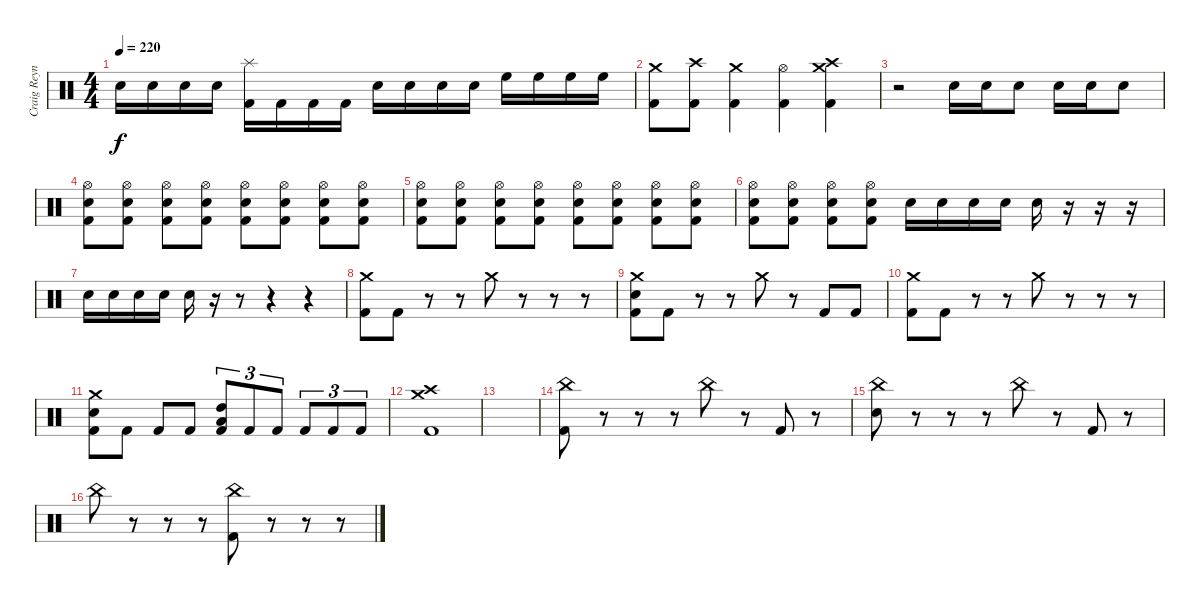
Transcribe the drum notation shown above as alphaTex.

\track ("Craig Reynolds" "Craig Reyn") {instrument percussion}
\staff {score}
\articulation defaults
\ts (4 4)
\tempo 220
\clef neutral
\ks c "Electric Snare (hit)".16{dy f} "Electric Snare (hit)".16 "Electric Snare (hit)".16 "Electric Snare (hit)".16
("Splash (hit)" "Kick (hit) 2").16 "Kick (hit) 2".16 "Kick (hit) 2".16 "Kick (hit) 2".16 "Electric Snare (hit)".16 "Electric Snare (hit)".16 "Electric Snare (hit)".16 "Electric Snare (hit)".16 "High Floor Tom (hit)".16 "High Floor Tom (hit)".16 "High Floor Tom (hit)".16 "High Floor Tom (hit)".16 |
("Crash medium (hit)" "Kick (hit) 2").8 ("Crash high (hit)" "Kick (hit) 2").8 ("Crash medium (hit)" "Kick (hit) 2").4 ("Hi-Hat (open)" "Kick (hit) 2").4 ("Crash high (hit)" "Crash medium (hit)" "Kick (hit) 2").4 |
r.2 "Electric Snare (hit)".16 "Electric Snare (hit)".16 "Electric Snare (hit)".8 "Electric Snare (hit)".16 "Electric Snare (hit)".16 "Electric Snare (hit)".8 |
("Hi-Hat (open)" "Electric Snare (hit)" "Kick (hit) 2").8 ("Hi-Hat (open)" "Electric Snare (hit)" "Kick (hit) 2").8 ("Hi-Hat (open)" "Electric Snare (hit)" "Kick (hit) 2").8 ("Hi-Hat (open)" "Electric Snare (hit)" "Kick (hit) 2").8 ("Hi-Hat (open)" "Electric Snare (hit)" "Kick (hit) 2").8 ("Hi-Hat (open)" "Electric Snare (hit)" "Kick (hit) 2").8 ("Hi-Hat (open)" "Electric Snare (hit)" "Kick (hit) 2").8 ("Hi-Hat (open)" "Electric Snare (hit)" "Kick (hit) 2").8 |
("Hi-Hat (open)" "Electric Snare (hit)" "Kick (hit) 2").8 ("Hi-Hat (open)" "Electric Snare (hit)" "Kick (hit) 2").8 ("Hi-Hat (open)" "Electric Snare (hit)" "Kick (hit) 2").8 ("Hi-Hat (open)" "Electric Snare (hit)" "Kick (hit) 2").8 ("Hi-Hat (open)" "Electric Snare (hit)" "Kick (hit) 2").8 ("Hi-Hat (open)" "Electric Snare (hit)" "Kick (hit) 2").8 ("Hi-Hat (open)" "Electric Snare (hit)" "Kick (hit) 2").8 ("Hi-Hat (open)" "Electric Snare (hit)" "Kick (hit) 2").8 |
("Hi-Hat (open)" "Electric Snare (hit)" "Kick (hit) 2").8 ("Hi-Hat (open)" "Electric Snare (hit)" "Kick (hit) 2").8 ("Hi-Hat (open)" "Electric Snare (hit)" "Kick (hit) 2").8 ("Hi-Hat (open)" "Electric Snare (hit)" "Kick (hit) 2").8 "Electric Snare (hit)".16 "Electric Snare (hit)".16 "Electric Snare (hit)".16 "Electric Snare (hit)".16 "Electric Snare (hit)".16 r.16 r.16 r.16 |
"Electric Snare (hit)".16 "Electric Snare (hit)".16 "Electric Snare (hit)".16 "Snare (hit)".16 "Electric Snare (hit)".16 r.16 r.8 r.4 r.4 |
("Crash medium (hit)" "Kick (hit) 2").8 "Kick (hit) 2".8 r.8 r.8 "Crash medium (hit)".8 r.8 r.8 r.8 |
("Crash medium (hit)" "Electric Snare (hit)" "Kick (hit) 2").8 "Kick (hit) 2".8 r.8 r.8 "Crash medium (hit)".8 r.8 "Kick (hit) 2".8 "Kick (hit) 2".8 |
("Crash medium (hit)" "Kick (hit) 2").8 "Kick (hit) 2".8 r.8 r.8 "Crash medium (hit)".8 r.8 r.8 r.8 |
("Crash medium (hit)" "Electric Snare (hit)" "Kick (hit) 2").8 "Kick (hit) 2".8 "Kick (hit) 2".8 "Kick (hit) 2".8 ("High Tom (hit)" "Low Tom (hit)" "Kick (hit) 2").8{tu (3 2)} "Kick (hit) 2".8{tu (3 2)} "Kick (hit) 2".8{tu (3 2)} "Kick (hit) 2".8{tu (3 2)} "Kick (hit) 2".8{tu (3 2)} "Kick (hit) 2".8{tu (3 2)} |
("Crash high (hit)" "Crash medium (hit)" "Kick (hit) 2").1 |
|
("China (hit)" "Kick (hit) 2").8 r.8 r.8 r.8 "China (hit)".8 r.8 "Kick (hit) 2".8 r.8 |
("China (hit)" "Electric Snare (hit)").8 r.8 r.8 r.8 "China (hit)".8 r.8 "Kick (hit) 2".8 r.8 |
"China (hit)".8 r.8 r.8 r.8 ("China (hit)" "Kick (hit) 2").8 r.8 r.8 r.8
